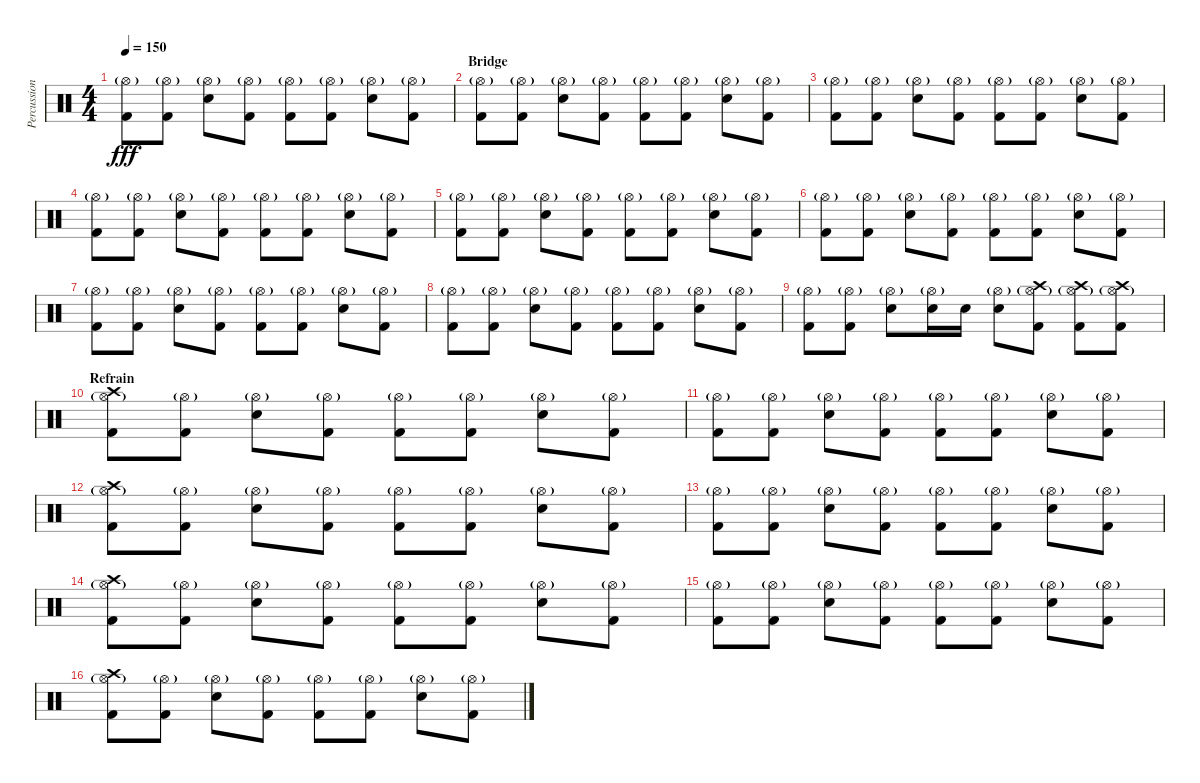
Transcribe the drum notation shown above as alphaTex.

\track ("Percussion" "Percussion") {instrument percussion}
\staff {score}
\articulation defaults
\ts (4 4)
\tempo 150
\clef neutral
\ks c
("Hi-Hat (open)"{g} "Kick (hit) 2").8{dy fff} ("Hi-Hat (open)"{g} "Kick (hit) 2").8 ("Hi-Hat (open)"{g} "Snare (hit) 2").8 ("Hi-Hat (open)"{g} "Kick (hit) 2").8 ("Hi-Hat (open)"{g} "Kick (hit) 2").8 ("Hi-Hat (open)"{g} "Kick (hit) 2").8 ("Hi-Hat (open)"{g} "Snare (hit) 2").8 ("Hi-Hat (open)"{g} "Kick (hit) 2").8 |
\section ("" "Bridge")
("Hi-Hat (open)"{g} "Kick (hit) 2").8 ("Hi-Hat (open)"{g} "Kick (hit) 2").8 ("Hi-Hat (open)"{g} "Snare (hit) 2").8 ("Hi-Hat (open)"{g} "Kick (hit) 2").8 ("Hi-Hat (open)"{g} "Kick (hit) 2").8 ("Hi-Hat (open)"{g} "Kick (hit) 2").8 ("Hi-Hat (open)"{g} "Snare (hit) 2").8 ("Hi-Hat (open)"{g} "Kick (hit) 2").8 |
("Hi-Hat (open)"{g} "Kick (hit) 2").8 ("Hi-Hat (open)"{g} "Kick (hit) 2").8 ("Hi-Hat (open)"{g} "Snare (hit) 2").8 ("Hi-Hat (open)"{g} "Kick (hit) 2").8 ("Hi-Hat (open)"{g} "Kick (hit) 2").8 ("Hi-Hat (open)"{g} "Kick (hit) 2").8 ("Hi-Hat (open)"{g} "Snare (hit) 2").8 ("Hi-Hat (open)"{g} "Kick (hit) 2").8 |
("Hi-Hat (open)"{g} "Kick (hit) 2").8 ("Hi-Hat (open)"{g} "Kick (hit) 2").8 ("Hi-Hat (open)"{g} "Snare (hit) 2").8 ("Hi-Hat (open)"{g} "Kick (hit) 2").8 ("Hi-Hat (open)"{g} "Kick (hit) 2").8 ("Hi-Hat (open)"{g} "Kick (hit) 2").8 ("Hi-Hat (open)"{g} "Snare (hit) 2").8 ("Hi-Hat (open)"{g} "Kick (hit) 2").8 |
("Hi-Hat (open)"{g} "Kick (hit) 2").8 ("Hi-Hat (open)"{g} "Kick (hit) 2").8 ("Hi-Hat (open)"{g} "Snare (hit) 2").8 ("Hi-Hat (open)"{g} "Kick (hit) 2").8 ("Hi-Hat (open)"{g} "Kick (hit) 2").8 ("Hi-Hat (open)"{g} "Kick (hit) 2").8 ("Hi-Hat (open)"{g} "Snare (hit) 2").8 ("Hi-Hat (open)"{g} "Kick (hit) 2").8 |
("Hi-Hat (open)"{g} "Kick (hit) 2").8 ("Hi-Hat (open)"{g} "Kick (hit) 2").8 ("Hi-Hat (open)"{g} "Snare (hit) 2").8 ("Hi-Hat (open)"{g} "Kick (hit) 2").8 ("Hi-Hat (open)"{g} "Kick (hit) 2").8 ("Hi-Hat (open)"{g} "Kick (hit) 2").8 ("Hi-Hat (open)"{g} "Snare (hit) 2").8 ("Hi-Hat (open)"{g} "Kick (hit) 2").8 |
("Hi-Hat (open)"{g} "Kick (hit) 2").8 ("Hi-Hat (open)"{g} "Kick (hit) 2").8 ("Hi-Hat (open)"{g} "Snare (hit) 2").8 ("Hi-Hat (open)"{g} "Kick (hit) 2").8 ("Hi-Hat (open)"{g} "Kick (hit) 2").8 ("Hi-Hat (open)"{g} "Kick (hit) 2").8 ("Hi-Hat (open)"{g} "Snare (hit) 2").8 ("Hi-Hat (open)"{g} "Kick (hit) 2").8 |
("Hi-Hat (open)"{g} "Kick (hit) 2").8 ("Hi-Hat (open)"{g} "Kick (hit) 2").8 ("Hi-Hat (open)"{g} "Snare (hit) 2").8 ("Hi-Hat (open)"{g} "Kick (hit) 2").8 ("Hi-Hat (open)"{g} "Kick (hit) 2").8 ("Hi-Hat (open)"{g} "Kick (hit) 2").8 ("Hi-Hat (open)"{g} "Snare (hit) 2").8 ("Hi-Hat (open)"{g} "Kick (hit) 2").8 |
("Hi-Hat (open)"{g} "Kick (hit) 2").8 ("Hi-Hat (open)"{g} "Kick (hit) 2").8 ("Hi-Hat (open)"{g} "Snare (hit) 2").8 ("Hi-Hat (open)"{g} "Snare (hit) 2").16 "Snare (hit) 2".16 ("Hi-Hat (open)"{g} "Snare (hit) 2").8 ("Crash high (hit)" "Hi-Hat (open)"{g} "Kick (hit) 2").8 ("Crash high (hit)" "Hi-Hat (open)"{g} "Kick (hit) 2").8 ("Crash high (hit)" "Hi-Hat (open)"{g} "Kick (hit) 2").8 |
\section ("" "Refrain")
("Crash high (hit)" "Hi-Hat (open)"{g} "Kick (hit) 2").8 ("Hi-Hat (open)"{g} "Kick (hit) 2").8 ("Hi-Hat (open)"{g} "Snare (hit) 2").8 ("Hi-Hat (open)"{g} "Kick (hit) 2").8 ("Hi-Hat (open)"{g} "Kick (hit) 2").8 ("Hi-Hat (open)"{g} "Kick (hit) 2").8 ("Hi-Hat (open)"{g} "Snare (hit) 2").8 ("Hi-Hat (open)"{g} "Kick (hit) 2").8 |
("Hi-Hat (open)"{g} "Kick (hit) 2").8 ("Hi-Hat (open)"{g} "Kick (hit) 2").8 ("Hi-Hat (open)"{g} "Snare (hit) 2").8 ("Hi-Hat (open)"{g} "Kick (hit) 2").8 ("Hi-Hat (open)"{g} "Kick (hit) 2").8 ("Hi-Hat (open)"{g} "Kick (hit) 2").8 ("Hi-Hat (open)"{g} "Snare (hit) 2").8 ("Hi-Hat (open)"{g} "Kick (hit) 2").8 |
("Crash high (hit)" "Hi-Hat (open)"{g} "Kick (hit) 2").8 ("Hi-Hat (open)"{g} "Kick (hit) 2").8 ("Hi-Hat (open)"{g} "Snare (hit) 2").8 ("Hi-Hat (open)"{g} "Kick (hit) 2").8 ("Hi-Hat (open)"{g} "Kick (hit) 2").8 ("Hi-Hat (open)"{g} "Kick (hit) 2").8 ("Hi-Hat (open)"{g} "Snare (hit) 2").8 ("Hi-Hat (open)"{g} "Kick (hit) 2").8 |
("Hi-Hat (open)"{g} "Kick (hit) 2").8 ("Hi-Hat (open)"{g} "Kick (hit) 2").8 ("Hi-Hat (open)"{g} "Snare (hit) 2").8 ("Hi-Hat (open)"{g} "Kick (hit) 2").8 ("Hi-Hat (open)"{g} "Kick (hit) 2").8 ("Hi-Hat (open)"{g} "Kick (hit) 2").8 ("Hi-Hat (open)"{g} "Snare (hit) 2").8 ("Hi-Hat (open)"{g} "Kick (hit) 2").8 |
("Crash high (hit)" "Hi-Hat (open)"{g} "Kick (hit) 2").8 ("Hi-Hat (open)"{g} "Kick (hit) 2").8 ("Hi-Hat (open)"{g} "Snare (hit) 2").8 ("Hi-Hat (open)"{g} "Kick (hit) 2").8 ("Hi-Hat (open)"{g} "Kick (hit) 2").8 ("Hi-Hat (open)"{g} "Kick (hit) 2").8 ("Hi-Hat (open)"{g} "Snare (hit) 2").8 ("Hi-Hat (open)"{g} "Kick (hit) 2").8 |
("Hi-Hat (open)"{g} "Kick (hit) 2").8 ("Hi-Hat (open)"{g} "Kick (hit) 2").8 ("Hi-Hat (open)"{g} "Snare (hit) 2").8 ("Hi-Hat (open)"{g} "Kick (hit) 2").8 ("Hi-Hat (open)"{g} "Kick (hit) 2").8 ("Hi-Hat (open)"{g} "Kick (hit) 2").8 ("Hi-Hat (open)"{g} "Snare (hit) 2").8 ("Hi-Hat (open)"{g} "Kick (hit) 2").8 |
("Crash high (hit)" "Hi-Hat (open)"{g} "Kick (hit) 2").8 ("Hi-Hat (open)"{g} "Kick (hit) 2").8 ("Hi-Hat (open)"{g} "Snare (hit) 2").8 ("Hi-Hat (open)"{g} "Kick (hit) 2").8 ("Hi-Hat (open)"{g} "Kick (hit) 2").8 ("Hi-Hat (open)"{g} "Kick (hit) 2").8 ("Hi-Hat (open)"{g} "Snare (hit) 2").8 ("Hi-Hat (open)"{g} "Kick (hit) 2").8
